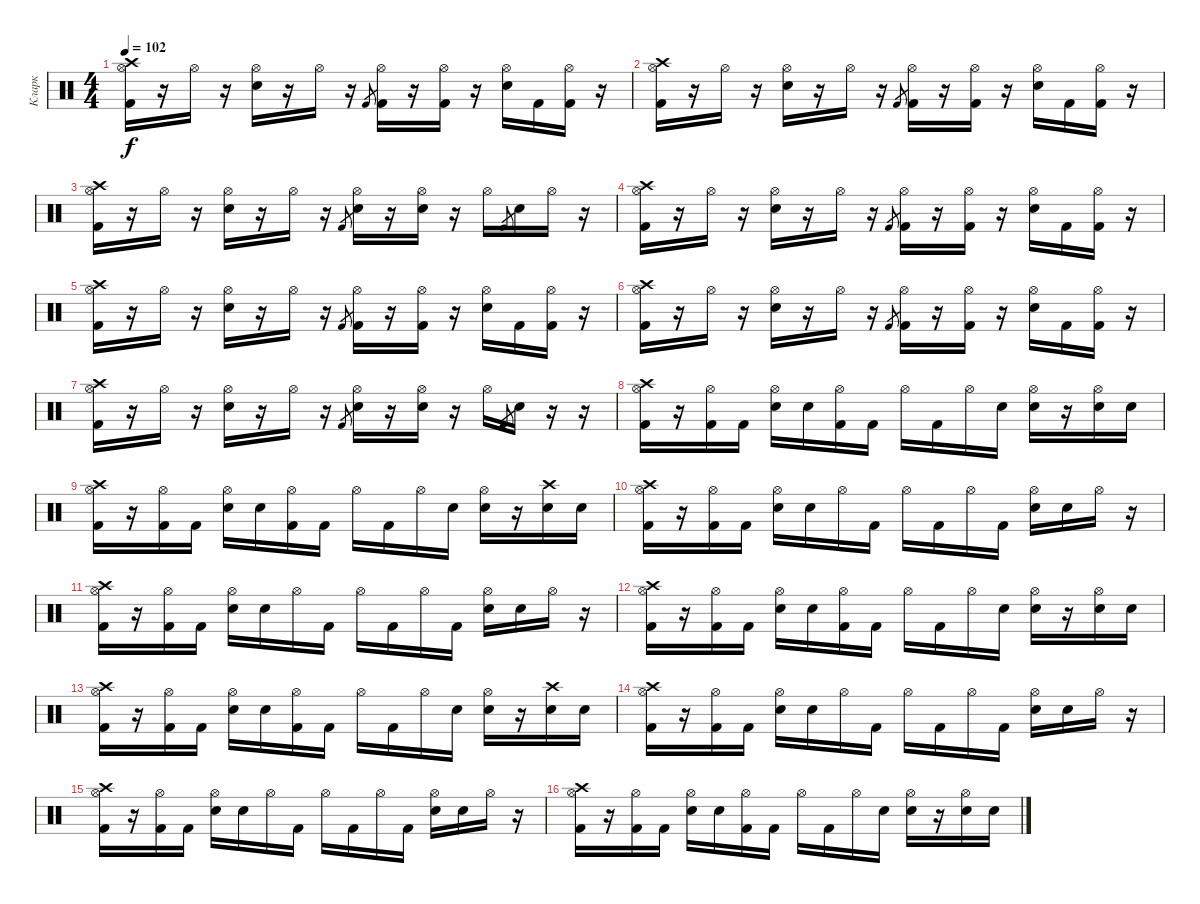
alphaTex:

\track ("Кларк" "Кларк") {instrument percussion}
\staff {score}
\articulation defaults
\ts (4 4)
\tempo 102
\clef neutral
\ks c
("Hi-Hat (open)" "Crash high (hit)" "Kick (hit) 2").16{dy f} r.16 "Hi-Hat (open)".16 r.16 ("Hi-Hat (open)" "Electric Snare (hit)").16 r.16 "Hi-Hat (open)".16 r.16 "Kick (hit) 2".8{gr} ("Hi-Hat (open)" "Kick (hit) 2").16 r.16 ("Hi-Hat (open)" "Kick (hit) 2").16 r.16 ("Hi-Hat (open)" "Electric Snare (hit)").16 "Kick (hit) 2".16 ("Hi-Hat (open)" "Kick (hit) 2").16 r.16 |
("Hi-Hat (open)" "Crash high (hit)" "Kick (hit) 2").16 r.16 "Hi-Hat (open)".16 r.16 ("Hi-Hat (open)" "Electric Snare (hit)").16 r.16 "Hi-Hat (open)".16 r.16 "Kick (hit) 2".8{gr} ("Hi-Hat (open)" "Kick (hit) 2").16 r.16 ("Hi-Hat (open)" "Kick (hit) 2").16 r.16 ("Hi-Hat (open)" "Electric Snare (hit)").16 "Kick (hit) 2".16 ("Hi-Hat (open)" "Kick (hit) 2").16 r.16 |
("Hi-Hat (open)" "Crash high (hit)" "Kick (hit) 2").16 r.16 "Hi-Hat (open)".16 r.16 ("Hi-Hat (open)" "Electric Snare (hit)").16 r.16 "Hi-Hat (open)".16 r.16 "Kick (hit) 2".8{gr} ("Hi-Hat (open)" "Electric Snare (hit)").16 r.16 ("Hi-Hat (open)" "Electric Snare (hit)").16 r.16 "Hi-Hat (open)".16 "Kick (hit) 2".8{gr} "Electric Snare (hit)".16 "Hi-Hat (open)".16 r.16 |
("Hi-Hat (open)" "Crash high (hit)" "Kick (hit) 2").16 r.16 "Hi-Hat (open)".16 r.16 ("Hi-Hat (open)" "Electric Snare (hit)").16 r.16 "Hi-Hat (open)".16 r.16 "Kick (hit) 2".8{gr} ("Hi-Hat (open)" "Kick (hit) 2").16 r.16 ("Hi-Hat (open)" "Kick (hit) 2").16 r.16 ("Hi-Hat (open)" "Electric Snare (hit)").16 "Kick (hit) 2".16 ("Hi-Hat (open)" "Kick (hit) 2").16 r.16 |
("Hi-Hat (open)" "Crash high (hit)" "Kick (hit) 2").16 r.16 "Hi-Hat (open)".16 r.16 ("Hi-Hat (open)" "Electric Snare (hit)").16 r.16 "Hi-Hat (open)".16 r.16 "Kick (hit) 2".8{gr} ("Hi-Hat (open)" "Kick (hit) 2").16 r.16 ("Hi-Hat (open)" "Kick (hit) 2").16 r.16 ("Hi-Hat (open)" "Electric Snare (hit)").16 "Kick (hit) 2".16 ("Hi-Hat (open)" "Kick (hit) 2").16 r.16 |
("Hi-Hat (open)" "Crash high (hit)" "Kick (hit) 2").16 r.16 "Hi-Hat (open)".16 r.16 ("Hi-Hat (open)" "Electric Snare (hit)").16 r.16 "Hi-Hat (open)".16 r.16 "Kick (hit) 2".8{gr} ("Hi-Hat (open)" "Kick (hit) 2").16 r.16 ("Hi-Hat (open)" "Kick (hit) 2").16 r.16 ("Hi-Hat (open)" "Electric Snare (hit)").16 "Kick (hit) 2".16 ("Hi-Hat (open)" "Kick (hit) 2").16 r.16 |
("Hi-Hat (open)" "Crash high (hit)" "Kick (hit) 2").16 r.16 "Hi-Hat (open)".16 r.16 ("Hi-Hat (open)" "Electric Snare (hit)").16 r.16 "Hi-Hat (open)".16 r.16 "Kick (hit) 2".8{gr} ("Hi-Hat (open)" "Electric Snare (hit)").16 r.16 ("Hi-Hat (open)" "Electric Snare (hit)").16 r.16 "Hi-Hat (open)".16 "Kick (hit) 2".8{gr} "Electric Snare (hit)".16 r.16 r.16 |
("Hi-Hat (open)" "Crash high (hit)" "Kick (hit) 2").16 r.16 ("Hi-Hat (open)" "Kick (hit) 2").16 "Kick (hit) 2".16 ("Hi-Hat (open)" "Electric Snare (hit)").16 "Electric Snare (hit)".16 ("Hi-Hat (open)" "Kick (hit) 2").16 "Kick (hit) 2".16 "Hi-Hat (open)".16 "Kick (hit) 2".16 "Hi-Hat (open)".16 "Electric Snare (hit)".16 ("Hi-Hat (open)" "Electric Snare (hit)").16 r.16 ("Hi-Hat (open)" "Electric Snare (hit)").16 "Electric Snare (hit)".16 |
("Hi-Hat (open)" "Crash high (hit)" "Kick (hit) 2").16 r.16 ("Hi-Hat (open)" "Kick (hit) 2").16 "Kick (hit) 2".16 ("Hi-Hat (open)" "Electric Snare (hit)").16 "Electric Snare (hit)".16 ("Hi-Hat (open)" "Kick (hit) 2").16 "Kick (hit) 2".16 "Hi-Hat (open)".16 "Kick (hit) 2".16 "Hi-Hat (open)".16 "Electric Snare (hit)".16 ("Hi-Hat (open)" "Electric Snare (hit)").16 r.16 ("Crash high (hit)" "Electric Snare (hit)").16 "Electric Snare (hit)".16 |
("Hi-Hat (open)" "Crash high (hit)" "Kick (hit) 2").16 r.16 ("Hi-Hat (open)" "Kick (hit) 2").16 "Kick (hit) 2".16 ("Hi-Hat (open)" "Electric Snare (hit)").16 "Electric Snare (hit)".16 "Hi-Hat (open)".16 "Kick (hit) 2".16 "Hi-Hat (open)".16 "Kick (hit) 2".16 "Hi-Hat (open)".16 "Kick (hit) 2".16 ("Hi-Hat (open)" "Electric Snare (hit)").16 "Electric Snare (hit)".16 "Hi-Hat (open)".16 r.16 |
("Hi-Hat (open)" "Crash high (hit)" "Kick (hit) 2").16 r.16 ("Hi-Hat (open)" "Kick (hit) 2").16 "Kick (hit) 2".16 ("Hi-Hat (open)" "Electric Snare (hit)").16 "Electric Snare (hit)".16 "Hi-Hat (open)".16 "Kick (hit) 2".16 "Hi-Hat (open)".16 "Kick (hit) 2".16 "Hi-Hat (open)".16 "Kick (hit) 2".16 ("Hi-Hat (open)" "Electric Snare (hit)").16 "Electric Snare (hit)".16 "Hi-Hat (open)".16 r.16 |
("Hi-Hat (open)" "Crash high (hit)" "Kick (hit) 2").16 r.16 ("Hi-Hat (open)" "Kick (hit) 2").16 "Kick (hit) 2".16 ("Hi-Hat (open)" "Electric Snare (hit)").16 "Electric Snare (hit)".16 ("Hi-Hat (open)" "Kick (hit) 2").16 "Kick (hit) 2".16 "Hi-Hat (open)".16 "Kick (hit) 2".16 "Hi-Hat (open)".16 "Electric Snare (hit)".16 ("Hi-Hat (open)" "Electric Snare (hit)").16 r.16 ("Hi-Hat (open)" "Electric Snare (hit)").16 "Electric Snare (hit)".16 |
("Hi-Hat (open)" "Crash high (hit)" "Kick (hit) 2").16 r.16 ("Hi-Hat (open)" "Kick (hit) 2").16 "Kick (hit) 2".16 ("Hi-Hat (open)" "Electric Snare (hit)").16 "Electric Snare (hit)".16 ("Hi-Hat (open)" "Kick (hit) 2").16 "Kick (hit) 2".16 "Hi-Hat (open)".16 "Kick (hit) 2".16 "Hi-Hat (open)".16 "Electric Snare (hit)".16 ("Hi-Hat (open)" "Electric Snare (hit)").16 r.16 ("Crash high (hit)" "Electric Snare (hit)").16 "Electric Snare (hit)".16 |
("Hi-Hat (open)" "Crash high (hit)" "Kick (hit) 2").16 r.16 ("Hi-Hat (open)" "Kick (hit) 2").16 "Kick (hit) 2".16 ("Hi-Hat (open)" "Electric Snare (hit)").16 "Electric Snare (hit)".16 "Hi-Hat (open)".16 "Kick (hit) 2".16 "Hi-Hat (open)".16 "Kick (hit) 2".16 "Hi-Hat (open)".16 "Kick (hit) 2".16 ("Hi-Hat (open)" "Electric Snare (hit)").16 "Electric Snare (hit)".16 "Hi-Hat (open)".16 r.16 |
("Hi-Hat (open)" "Crash high (hit)" "Kick (hit) 2").16 r.16 ("Hi-Hat (open)" "Kick (hit) 2").16 "Kick (hit) 2".16 ("Hi-Hat (open)" "Electric Snare (hit)").16 "Electric Snare (hit)".16 "Hi-Hat (open)".16 "Kick (hit) 2".16 "Hi-Hat (open)".16 "Kick (hit) 2".16 "Hi-Hat (open)".16 "Kick (hit) 2".16 ("Hi-Hat (open)" "Electric Snare (hit)").16 "Electric Snare (hit)".16 "Hi-Hat (open)".16 r.16 |
("Hi-Hat (open)" "Crash high (hit)" "Kick (hit) 2").16 r.16 ("Hi-Hat (open)" "Kick (hit) 2").16 "Kick (hit) 2".16 ("Hi-Hat (open)" "Electric Snare (hit)").16 "Electric Snare (hit)".16 ("Hi-Hat (open)" "Kick (hit) 2").16 "Kick (hit) 2".16 "Hi-Hat (open)".16 "Kick (hit) 2".16 "Hi-Hat (open)".16 "Electric Snare (hit)".16 ("Hi-Hat (open)" "Electric Snare (hit)").16 r.16 ("Hi-Hat (open)" "Electric Snare (hit)").16 "Electric Snare (hit)".16
